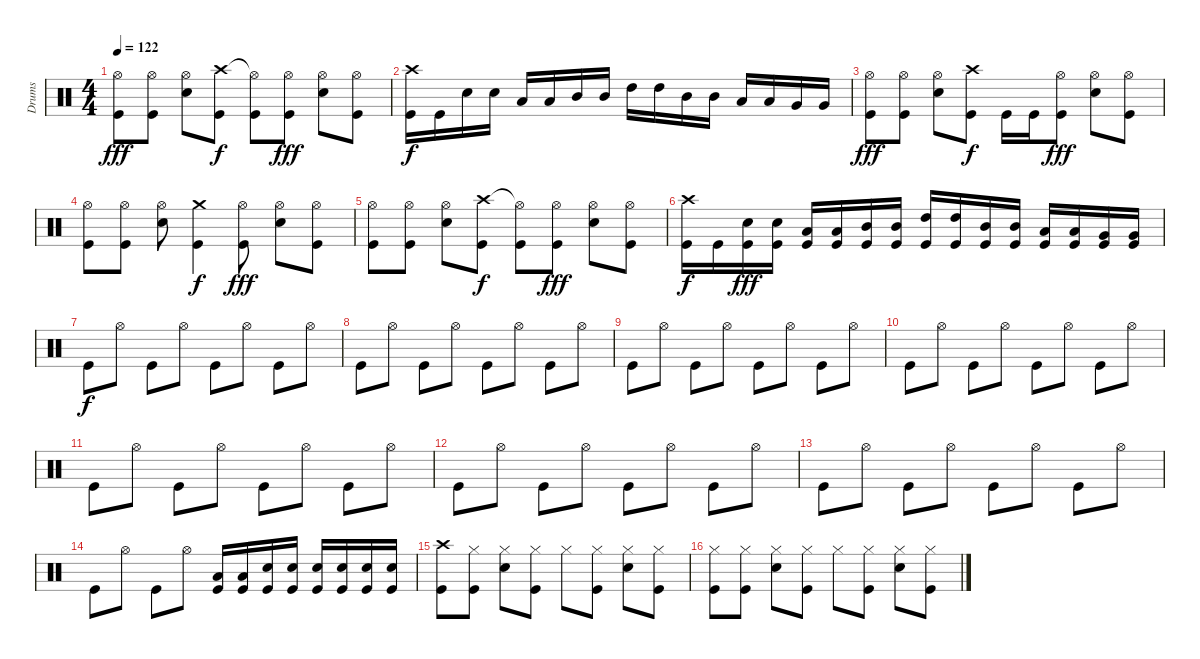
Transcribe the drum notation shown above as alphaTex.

\track ("Drums" "Drums") {instrument percussion}
\staff {score}
\articulation defaults
\ts (4 4)
\tempo 122
\clef neutral
\ks c
("Hi-Hat (open)" "Kick (hit)").8{dy fff} ("Hi-Hat (open)" "Kick (hit)").8 ("Hi-Hat (open)" "Snare (hit) 2").8 ("Crash high (hit)" "Kick (hit)").8{dy f} ("Hi-Hat (open)"{t} "Kick (hit)").8 ("Hi-Hat (open)" "Kick (hit)").8{dy fff} ("Hi-Hat (open)" "Snare (hit) 2").8 ("Hi-Hat (open)" "Kick (hit)").8 |
("Crash high (hit)" "Kick (hit)").16{dy f} "Kick (hit)".16 "Snare (hit) 2".16 "Snare (hit) 2".16 "Low Tom (hit)".16 "Low Tom (hit)".16 "Mid Tom (hit)".16 "Mid Tom (hit)".16 "High Tom (hit)".16 "High Tom (hit)".16 "Mid Tom (hit)".16 "Mid Tom (hit)".16 "Low Tom (hit)".16 "Low Tom (hit)".16 "Very Low Tom (hit)".16 "Very Low Tom (hit)".16 |
("Hi-Hat (open)" "Kick (hit)").8{dy fff} ("Hi-Hat (open)" "Kick (hit)").8 ("Hi-Hat (open)" "Snare (hit) 2").8 ("Crash high (hit)" "Kick (hit)").8{dy f} "Kick (hit)".16 "Kick (hit)".16 ("Hi-Hat (open)" "Kick (hit)").8{dy fff} ("Hi-Hat (open)" "Snare (hit) 2").8 ("Hi-Hat (open)" "Kick (hit)").8 |
("Hi-Hat (open)" "Kick (hit)").8 ("Hi-Hat (open)" "Kick (hit)").8 ("Hi-Hat (open)" "Snare (hit) 2").8 ("Crash medium (hit)" "Kick (hit)").4{dy f} ("Hi-Hat (open)" "Kick (hit)").8{dy fff} ("Hi-Hat (open)" "Snare (hit) 2").8 ("Hi-Hat (open)" "Kick (hit)").8 |
("Hi-Hat (open)" "Kick (hit)").8 ("Hi-Hat (open)" "Kick (hit)").8 ("Hi-Hat (open)" "Snare (hit) 2").8 ("Crash high (hit)" "Kick (hit)").8{dy f} ("Hi-Hat (open)"{t} "Kick (hit)").8 ("Hi-Hat (open)" "Kick (hit)").8{dy fff} ("Hi-Hat (open)" "Snare (hit) 2").8 ("Hi-Hat (open)" "Kick (hit)").8 |
("Crash high (hit)" "Kick (hit)").16{dy f} "Kick (hit)".16 ("Snare (hit) 2" "Kick (hit)").16{dy fff} ("Snare (hit) 2" "Kick (hit)").16 ("Low Tom (hit)" "Kick (hit)").16 ("Low Tom (hit)" "Kick (hit)").16 ("Mid Tom (hit)" "Kick (hit)").16 ("Mid Tom (hit)" "Kick (hit)").16 ("High Tom (hit)" "Kick (hit)").16 ("High Tom (hit)" "Kick (hit)").16 ("Mid Tom (hit)" "Kick (hit)").16 ("Mid Tom (hit)" "Kick (hit)").16 ("Low Tom (hit)" "Kick (hit)").16 ("Low Tom (hit)" "Kick (hit)").16 ("Very Low Tom (hit)" "Kick (hit)").16 ("Very Low Tom (hit)" "Kick (hit)").16 |
"Kick (hit)".8{dy f} "Hi-Hat (open)".8 "Kick (hit)".8 "Hi-Hat (open)".8 "Kick (hit)".8 "Hi-Hat (open)".8 "Kick (hit)".8 "Hi-Hat (open)".8 |
"Kick (hit)".8 "Hi-Hat (open)".8 "Kick (hit)".8 "Hi-Hat (open)".8 "Kick (hit)".8 "Hi-Hat (open)".8 "Kick (hit)".8 "Hi-Hat (open)".8 |
"Kick (hit)".8 "Hi-Hat (open)".8 "Kick (hit)".8 "Hi-Hat (open)".8 "Kick (hit)".8 "Hi-Hat (open)".8 "Kick (hit)".8 "Hi-Hat (open)".8 |
"Kick (hit)".8 "Hi-Hat (open)".8 "Kick (hit)".8 "Hi-Hat (open)".8 "Kick (hit)".8 "Hi-Hat (open)".8 "Kick (hit)".8 "Hi-Hat (open)".8 |
"Kick (hit)".8 "Hi-Hat (open)".8 "Kick (hit)".8 "Hi-Hat (open)".8 "Kick (hit)".8 "Hi-Hat (open)".8 "Kick (hit)".8 "Hi-Hat (open)".8 |
"Kick (hit)".8 "Hi-Hat (open)".8 "Kick (hit)".8 "Hi-Hat (open)".8 "Kick (hit)".8 "Hi-Hat (open)".8 "Kick (hit)".8 "Hi-Hat (open)".8 |
"Kick (hit)".8 "Hi-Hat (open)".8 "Kick (hit)".8 "Hi-Hat (open)".8 "Kick (hit)".8 "Hi-Hat (open)".8 "Kick (hit)".8 "Hi-Hat (open)".8 |
"Kick (hit)".8 "Hi-Hat (open)".8 "Kick (hit)".8 "Hi-Hat (open)".8 ("Low Tom (hit)" "Kick (hit)").16 ("Low Tom (hit)" "Kick (hit)").16 ("Snare (hit) 2" "Kick (hit)").16 ("Snare (hit) 2" "Kick (hit)").16 ("Snare (hit) 2" "Kick (hit)").16 ("Snare (hit) 2" "Kick (hit)").16 ("Snare (hit) 2" "Kick (hit)").16 ("Snare (hit) 2" "Kick (hit)").16 |
("Crash high (hit)" "Kick (hit)").8 ("Hi-Hat (closed)" "Kick (hit)").8 ("Hi-Hat (closed)" "Snare (hit) 2").8 ("Hi-Hat (closed)" "Kick (hit)").8 "Hi-Hat (closed)".8 ("Hi-Hat (closed)" "Kick (hit)").8 ("Hi-Hat (closed)" "Snare (hit) 2").8 ("Hi-Hat (closed)" "Kick (hit)").8 |
("Hi-Hat (closed)" "Kick (hit)").8 ("Hi-Hat (closed)" "Kick (hit)").8 ("Hi-Hat (closed)" "Snare (hit) 2").8 ("Hi-Hat (closed)" "Kick (hit)").8 "Hi-Hat (closed)".8 ("Hi-Hat (closed)" "Kick (hit)").8 ("Hi-Hat (closed)" "Snare (hit) 2").8 ("Hi-Hat (closed)" "Kick (hit)").8
